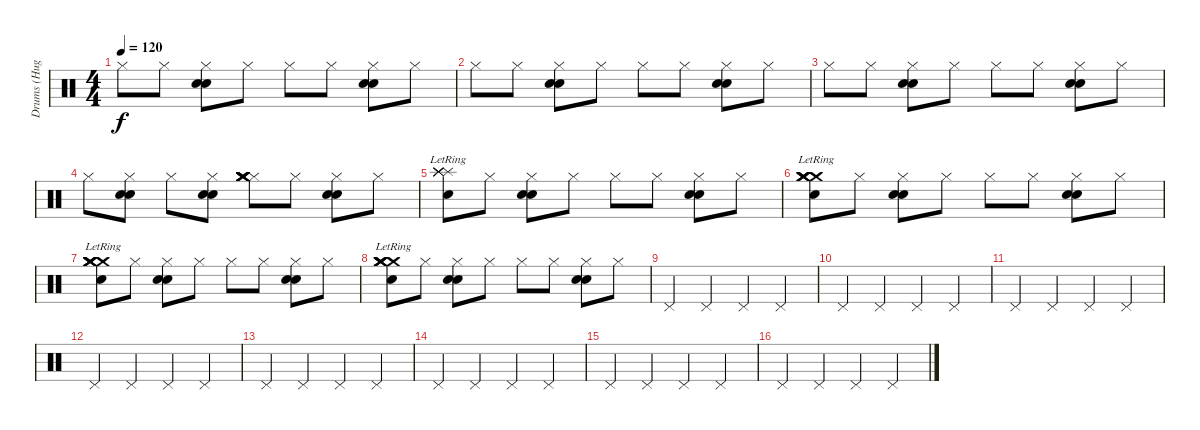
\track ("Drums (Hugo)" "Drums (Hug") {instrument percussion}
\staff {score}
\articulation defaults
\ts (4 4)
\tempo 120
\clef neutral
\ks c "Hi-Hat (closed)".8{dy f} "Hi-Hat (closed)".8
("Electric Snare (hit)" "Hi-Hat (closed)" "Electric Snare (hit)").8 "Hi-Hat (closed)".8 "Hi-Hat (closed)".8 "Hi-Hat (closed)".8 ("Electric Snare (hit)" "Hi-Hat (closed)" "Electric Snare (hit)").8 "Hi-Hat (closed)".8 |
"Hi-Hat (closed)".8 "Hi-Hat (closed)".8 ("Electric Snare (hit)" "Hi-Hat (closed)" "Electric Snare (hit)").8 "Hi-Hat (closed)".8 "Hi-Hat (closed)".8 "Hi-Hat (closed)".8 ("Electric Snare (hit)" "Hi-Hat (closed)" "Electric Snare (hit)").8 "Hi-Hat (closed)".8 |
"Hi-Hat (closed)".8 "Hi-Hat (closed)".8 ("Electric Snare (hit)" "Hi-Hat (closed)" "Electric Snare (hit)").8 "Hi-Hat (closed)".8 "Hi-Hat (closed)".8 "Hi-Hat (closed)".8 ("Electric Snare (hit)" "Hi-Hat (closed)" "Electric Snare (hit)").8 "Hi-Hat (closed)".8 |
"Hi-Hat (closed)".8 ("Hi-Hat (closed)" "Electric Snare (hit)" "Electric Snare (hit)").8 "Hi-Hat (closed)".8 ("Hi-Hat (closed)" "Electric Snare (hit)" "Electric Snare (hit)").8 ("Hi-Hat (closed)" "Crash medium (hit)" "Crash medium (hit)" "Crash medium (hit)" "Crash medium (hit)" "Crash medium (hit)").8 "Hi-Hat (closed)".8 ("Hi-Hat (closed)" "Electric Snare (hit)" "Electric Snare (hit)").8 "Hi-Hat (closed)".8 |
("Splash (hit)" "Splash (hit)" "Splash (hit)"{lr} "Splash (hit)"{lr} "Splash (hit)"{lr} "Electric Snare (hit)"{lr}).8 "Hi-Hat (closed)".8 ("Electric Snare (hit)" "Hi-Hat (closed)" "Electric Snare (hit)").8 "Hi-Hat (closed)".8 "Hi-Hat (closed)".8 "Hi-Hat (closed)".8 ("Electric Snare (hit)" "Hi-Hat (closed)" "Electric Snare (hit)").8 "Hi-Hat (closed)".8 |
("Electric Snare (hit)" "Crash medium (hit)"{lr} "Crash medium (hit)"{lr} "Crash medium (hit)"{lr} "Crash medium (hit)"{lr} "Crash medium (hit)"{lr}).8 "Hi-Hat (closed)".8 ("Electric Snare (hit)" "Hi-Hat (closed)" "Electric Snare (hit)").8 "Hi-Hat (closed)".8 "Hi-Hat (closed)".8 "Hi-Hat (closed)".8 ("Electric Snare (hit)" "Hi-Hat (closed)" "Electric Snare (hit)").8 "Hi-Hat (closed)".8 |
("Electric Snare (hit)" "Crash medium (hit)"{lr} "Crash medium (hit)"{lr} "Crash medium (hit)"{lr} "Crash medium (hit)"{lr} "Crash medium (hit)"{lr}).8 "Hi-Hat (closed)".8 ("Electric Snare (hit)" "Hi-Hat (closed)" "Electric Snare (hit)").8 "Hi-Hat (closed)".8 "Hi-Hat (closed)".8 "Hi-Hat (closed)".8 ("Electric Snare (hit)" "Hi-Hat (closed)" "Electric Snare (hit)").8 "Hi-Hat (closed)".8 |
("Electric Snare (hit)" "Crash medium (hit)"{lr} "Crash medium (hit)"{lr} "Crash medium (hit)"{lr} "Crash medium (hit)"{lr} "Crash medium (hit)"{lr}).8 "Hi-Hat (closed)".8 ("Electric Snare (hit)" "Hi-Hat (closed)" "Electric Snare (hit)").8 "Hi-Hat (closed)".8 "Hi-Hat (closed)".8 "Hi-Hat (closed)".8 ("Electric Snare (hit)" "Hi-Hat (closed)" "Electric Snare (hit)").8 "Hi-Hat (closed)".8 |
"Pedal Hi-Hat (hit)".4 "Pedal Hi-Hat (hit)".4 "Pedal Hi-Hat (hit)".4 "Pedal Hi-Hat (hit)".4 |
"Pedal Hi-Hat (hit)".4 "Pedal Hi-Hat (hit)".4 "Pedal Hi-Hat (hit)".4 "Pedal Hi-Hat (hit)".4 |
"Pedal Hi-Hat (hit)".4 "Pedal Hi-Hat (hit)".4 "Pedal Hi-Hat (hit)".4 "Pedal Hi-Hat (hit)".4 |
"Pedal Hi-Hat (hit)".4 "Pedal Hi-Hat (hit)".4 "Pedal Hi-Hat (hit)".4 "Pedal Hi-Hat (hit)".4 |
"Pedal Hi-Hat (hit)".4 "Pedal Hi-Hat (hit)".4 "Pedal Hi-Hat (hit)".4 "Pedal Hi-Hat (hit)".4 |
"Pedal Hi-Hat (hit)".4 "Pedal Hi-Hat (hit)".4 "Pedal Hi-Hat (hit)".4 "Pedal Hi-Hat (hit)".4 |
"Pedal Hi-Hat (hit)".4 "Pedal Hi-Hat (hit)".4 "Pedal Hi-Hat (hit)".4 "Pedal Hi-Hat (hit)".4 |
"Pedal Hi-Hat (hit)".4 "Pedal Hi-Hat (hit)".4 "Pedal Hi-Hat (hit)".4 "Pedal Hi-Hat (hit)".4
